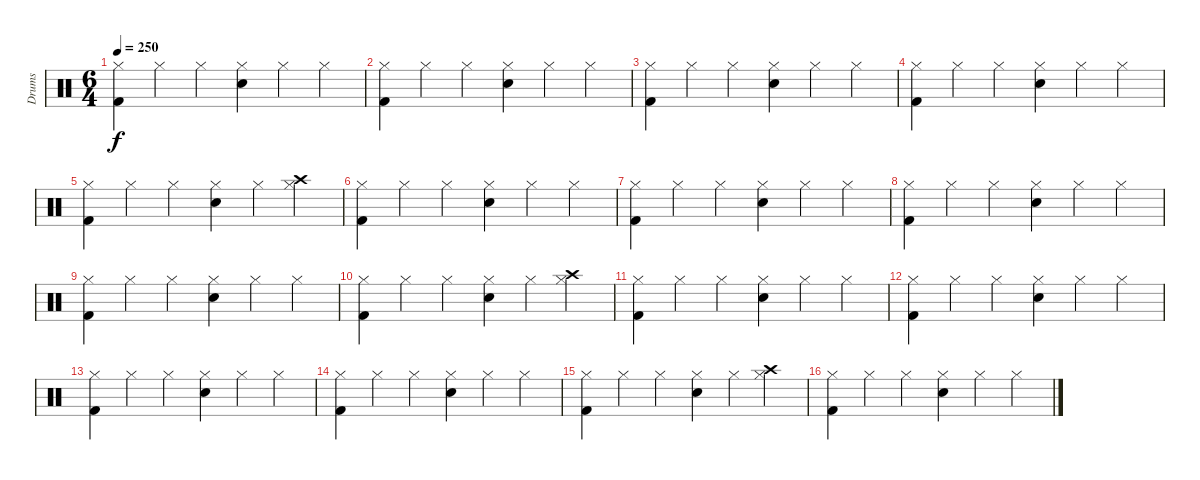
\track ("Drums" "Drums") {instrument percussion}
\staff {score}
\articulation defaults
\ts (6 4)
\tempo 250
\clef neutral
\ks c
("Hi-Hat (closed)" "Kick (hit) 2").4{dy f} "Hi-Hat (closed)".4 "Hi-Hat (closed)".4 ("Hi-Hat (closed)" "Snare (hit) 2").4 "Hi-Hat (closed)".4 "Hi-Hat (closed)".4 |
("Hi-Hat (closed)" "Kick (hit) 2").4 "Hi-Hat (closed)".4 "Hi-Hat (closed)".4 ("Hi-Hat (closed)" "Snare (hit) 2").4 "Hi-Hat (closed)".4 "Hi-Hat (closed)".4 |
("Hi-Hat (closed)" "Kick (hit) 2").4 "Hi-Hat (closed)".4 "Hi-Hat (closed)".4 ("Hi-Hat (closed)" "Snare (hit) 2").4 "Hi-Hat (closed)".4 "Hi-Hat (closed)".4 |
("Hi-Hat (closed)" "Kick (hit) 2").4 "Hi-Hat (closed)".4 "Hi-Hat (closed)".4 ("Hi-Hat (closed)" "Snare (hit) 2").4 "Hi-Hat (closed)".4 "Hi-Hat (closed)".4 |
("Hi-Hat (closed)" "Kick (hit) 2").4 "Hi-Hat (closed)".4 "Hi-Hat (closed)".4 ("Hi-Hat (closed)" "Snare (hit) 2").4 "Hi-Hat (closed)".4 ("Hi-Hat (closed)" "Crash high (hit)").4 |
("Hi-Hat (closed)" "Kick (hit) 2").4 "Hi-Hat (closed)".4 "Hi-Hat (closed)".4 ("Hi-Hat (closed)" "Snare (hit) 2").4 "Hi-Hat (closed)".4 "Hi-Hat (closed)".4 |
("Hi-Hat (closed)" "Kick (hit) 2").4 "Hi-Hat (closed)".4 "Hi-Hat (closed)".4 ("Hi-Hat (closed)" "Snare (hit) 2").4 "Hi-Hat (closed)".4 "Hi-Hat (closed)".4 |
("Hi-Hat (closed)" "Kick (hit) 2").4 "Hi-Hat (closed)".4 "Hi-Hat (closed)".4 ("Hi-Hat (closed)" "Snare (hit) 2").4 "Hi-Hat (closed)".4 "Hi-Hat (closed)".4 |
("Hi-Hat (closed)" "Kick (hit) 2").4 "Hi-Hat (closed)".4 "Hi-Hat (closed)".4 ("Hi-Hat (closed)" "Snare (hit) 2").4 "Hi-Hat (closed)".4 "Hi-Hat (closed)".4 |
("Hi-Hat (closed)" "Kick (hit) 2").4 "Hi-Hat (closed)".4 "Hi-Hat (closed)".4 ("Hi-Hat (closed)" "Snare (hit) 2").4 "Hi-Hat (closed)".4 ("Hi-Hat (closed)" "Crash high (hit)").4 |
("Hi-Hat (closed)" "Kick (hit) 2").4 "Hi-Hat (closed)".4 "Hi-Hat (closed)".4 ("Hi-Hat (closed)" "Snare (hit) 2").4 "Hi-Hat (closed)".4 "Hi-Hat (closed)".4 |
("Hi-Hat (closed)" "Kick (hit) 2").4 "Hi-Hat (closed)".4 "Hi-Hat (closed)".4 ("Hi-Hat (closed)" "Snare (hit) 2").4 "Hi-Hat (closed)".4 "Hi-Hat (closed)".4 |
("Hi-Hat (closed)" "Kick (hit) 2").4 "Hi-Hat (closed)".4 "Hi-Hat (closed)".4 ("Hi-Hat (closed)" "Snare (hit) 2").4 "Hi-Hat (closed)".4 "Hi-Hat (closed)".4 |
("Hi-Hat (closed)" "Kick (hit) 2").4 "Hi-Hat (closed)".4 "Hi-Hat (closed)".4 ("Hi-Hat (closed)" "Snare (hit) 2").4 "Hi-Hat (closed)".4 "Hi-Hat (closed)".4 |
("Hi-Hat (closed)" "Kick (hit) 2").4 "Hi-Hat (closed)".4 "Hi-Hat (closed)".4 ("Hi-Hat (closed)" "Snare (hit) 2").4 "Hi-Hat (closed)".4 ("Hi-Hat (closed)" "Crash high (hit)").4 |
("Hi-Hat (closed)" "Kick (hit) 2").4 "Hi-Hat (closed)".4 "Hi-Hat (closed)".4 ("Hi-Hat (closed)" "Snare (hit) 2").4 "Hi-Hat (closed)".4 "Hi-Hat (closed)".4
